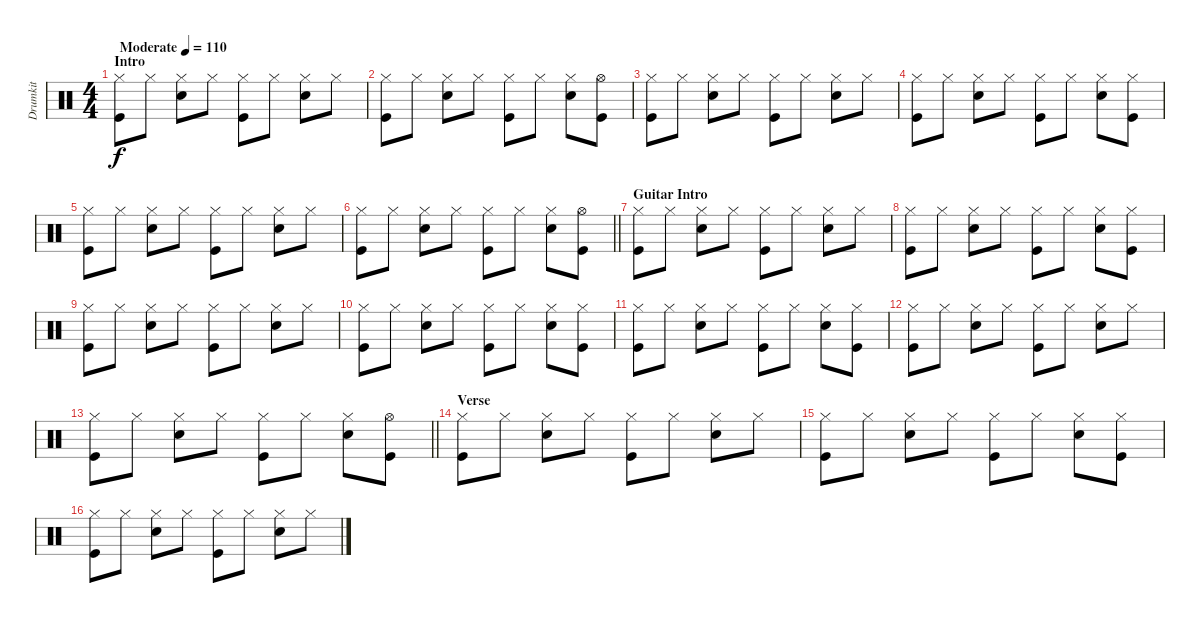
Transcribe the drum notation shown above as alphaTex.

\track ("Drumkit" "Drumkit") {instrument percussion}
\staff {score}
\articulation defaults
\ts (4 4)
\section ("" "Intro")
\tempo (110 "Moderate")
\clef neutral
\ks c
("Hi-Hat (closed)" "Kick (hit)").8{dy f} "Hi-Hat (closed)".8 ("Hi-Hat (closed)" "Snare (hit) 2").8 "Hi-Hat (closed)".8 ("Hi-Hat (closed)" "Kick (hit)").8 "Hi-Hat (closed)".8 ("Hi-Hat (closed)" "Snare (hit) 2").8 "Hi-Hat (closed)".8 |
("Hi-Hat (closed)" "Kick (hit)").8 "Hi-Hat (closed)".8 ("Hi-Hat (closed)" "Snare (hit) 2").8 "Hi-Hat (closed)".8 ("Hi-Hat (closed)" "Kick (hit)").8 "Hi-Hat (closed)".8 ("Hi-Hat (closed)" "Snare (hit) 2").8 ("Hi-Hat (open)" "Kick (hit)").8 |
("Hi-Hat (closed)" "Kick (hit)").8 "Hi-Hat (closed)".8 ("Hi-Hat (closed)" "Snare (hit) 2").8 "Hi-Hat (closed)".8 ("Hi-Hat (closed)" "Kick (hit)").8 "Hi-Hat (closed)".8 ("Hi-Hat (closed)" "Snare (hit) 2").8 "Hi-Hat (closed)".8 |
("Hi-Hat (closed)" "Kick (hit)").8 "Hi-Hat (closed)".8 ("Hi-Hat (closed)" "Snare (hit) 2").8 "Hi-Hat (closed)".8 ("Hi-Hat (closed)" "Kick (hit)").8 "Hi-Hat (closed)".8 ("Hi-Hat (closed)" "Snare (hit) 2").8 ("Hi-Hat (closed)" "Kick (hit)").8 |
("Hi-Hat (closed)" "Kick (hit)").8 "Hi-Hat (closed)".8 ("Hi-Hat (closed)" "Snare (hit) 2").8 "Hi-Hat (closed)".8 ("Hi-Hat (closed)" "Kick (hit)").8 "Hi-Hat (closed)".8 ("Hi-Hat (closed)" "Snare (hit) 2").8 "Hi-Hat (closed)".8 |
\barLineRight lightlight
("Hi-Hat (closed)" "Kick (hit)").8 "Hi-Hat (closed)".8 ("Hi-Hat (closed)" "Snare (hit) 2").8 "Hi-Hat (closed)".8 ("Hi-Hat (closed)" "Kick (hit)").8 "Hi-Hat (closed)".8 ("Hi-Hat (closed)" "Snare (hit) 2").8 ("Hi-Hat (open)" "Kick (hit)").8 |
\section ("" "Guitar Intro")
("Hi-Hat (closed)" "Kick (hit)").8 "Hi-Hat (closed)".8 ("Hi-Hat (closed)" "Snare (hit) 2").8 "Hi-Hat (closed)".8 ("Hi-Hat (closed)" "Kick (hit)").8 "Hi-Hat (closed)".8 ("Hi-Hat (closed)" "Snare (hit) 2").8 "Hi-Hat (closed)".8 |
("Hi-Hat (closed)" "Kick (hit)").8 "Hi-Hat (closed)".8 ("Hi-Hat (closed)" "Snare (hit) 2").8 "Hi-Hat (closed)".8 ("Hi-Hat (closed)" "Kick (hit)").8 "Hi-Hat (closed)".8 ("Hi-Hat (closed)" "Snare (hit) 2").8 ("Hi-Hat (closed)" "Kick (hit)").8 |
("Hi-Hat (closed)" "Kick (hit)").8 "Hi-Hat (closed)".8 ("Hi-Hat (closed)" "Snare (hit) 2").8 "Hi-Hat (closed)".8 ("Hi-Hat (closed)" "Kick (hit)").8 "Hi-Hat (closed)".8 ("Hi-Hat (closed)" "Snare (hit) 2").8 "Hi-Hat (closed)".8 |
("Hi-Hat (closed)" "Kick (hit)").8 "Hi-Hat (closed)".8 ("Hi-Hat (closed)" "Snare (hit) 2").8 "Hi-Hat (closed)".8 ("Hi-Hat (closed)" "Kick (hit)").8 "Hi-Hat (closed)".8 ("Hi-Hat (closed)" "Snare (hit) 2").8 ("Hi-Hat (closed)" "Kick (hit)").8 |
("Hi-Hat (closed)" "Kick (hit)").8 "Hi-Hat (closed)".8 ("Hi-Hat (closed)" "Snare (hit) 2").8 "Hi-Hat (closed)".8 ("Hi-Hat (closed)" "Kick (hit)").8 "Hi-Hat (closed)".8 ("Hi-Hat (closed)" "Snare (hit) 2").8 ("Hi-Hat (closed)" "Kick (hit)").8 |
("Hi-Hat (closed)" "Kick (hit)").8 "Hi-Hat (closed)".8 ("Hi-Hat (closed)" "Snare (hit) 2").8 "Hi-Hat (closed)".8 ("Hi-Hat (closed)" "Kick (hit)").8 "Hi-Hat (closed)".8 ("Hi-Hat (closed)" "Snare (hit) 2").8 "Hi-Hat (closed)".8 |
\barLineRight lightlight
("Hi-Hat (closed)" "Kick (hit)").8 "Hi-Hat (closed)".8 ("Hi-Hat (closed)" "Snare (hit) 2").8 "Hi-Hat (closed)".8 ("Hi-Hat (closed)" "Kick (hit)").8 "Hi-Hat (closed)".8 ("Hi-Hat (closed)" "Snare (hit) 2").8 ("Hi-Hat (open)" "Kick (hit)").8 |
\section ("" "Verse")
("Hi-Hat (closed)" "Kick (hit)").8 "Hi-Hat (closed)".8 ("Hi-Hat (closed)" "Snare (hit) 2").8 "Hi-Hat (closed)".8 ("Hi-Hat (closed)" "Kick (hit)").8 "Hi-Hat (closed)".8 ("Hi-Hat (closed)" "Snare (hit) 2").8 "Hi-Hat (closed)".8 |
("Hi-Hat (closed)" "Kick (hit)").8 "Hi-Hat (closed)".8 ("Hi-Hat (closed)" "Snare (hit) 2").8 "Hi-Hat (closed)".8 ("Hi-Hat (closed)" "Kick (hit)").8 "Hi-Hat (closed)".8 ("Hi-Hat (closed)" "Snare (hit) 2").8 ("Hi-Hat (closed)" "Kick (hit)").8 |
("Hi-Hat (closed)" "Kick (hit)").8 "Hi-Hat (closed)".8 ("Hi-Hat (closed)" "Snare (hit) 2").8 "Hi-Hat (closed)".8 ("Hi-Hat (closed)" "Kick (hit)").8 "Hi-Hat (closed)".8 ("Hi-Hat (closed)" "Snare (hit) 2").8 "Hi-Hat (closed)".8
